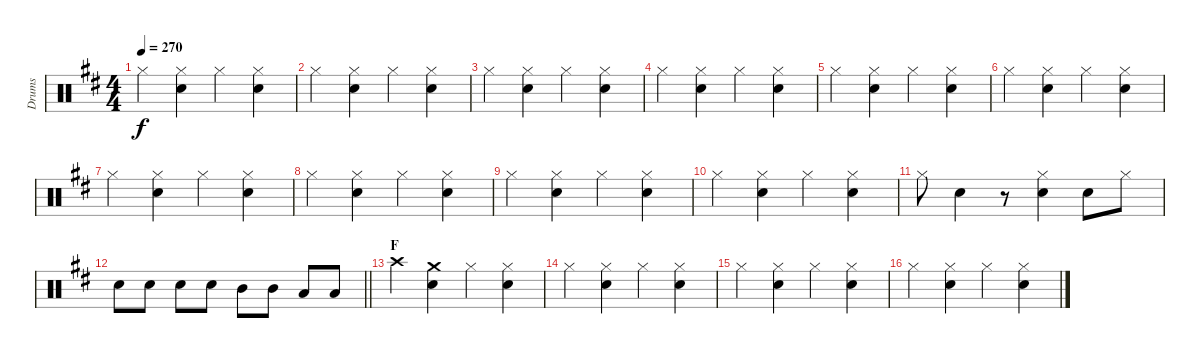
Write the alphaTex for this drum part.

\track ("Drums" "Drums") {instrument percussion}
\staff {score}
\articulation defaults
\ts (4 4)
\tempo 270
\clef neutral
\ks d "Hi-Hat (closed)".4{dy f}
("Hi-Hat (closed)" "Snare (hit) 2").4 "Hi-Hat (closed)".4 ("Hi-Hat (closed)" "Snare (hit) 2").4 |
"Hi-Hat (closed)".4 ("Hi-Hat (closed)" "Snare (hit) 2").4 "Hi-Hat (closed)".4 ("Hi-Hat (closed)" "Snare (hit) 2").4 |
"Hi-Hat (closed)".4 ("Hi-Hat (closed)" "Snare (hit) 2").4 "Hi-Hat (closed)".4 ("Hi-Hat (closed)" "Snare (hit) 2").4 |
"Hi-Hat (closed)".4 ("Hi-Hat (closed)" "Snare (hit) 2").4 "Hi-Hat (closed)".4 ("Hi-Hat (closed)" "Snare (hit) 2").4 |
"Hi-Hat (closed)".4 ("Hi-Hat (closed)" "Snare (hit) 2").4 "Hi-Hat (closed)".4 ("Hi-Hat (closed)" "Snare (hit) 2").4 |
"Hi-Hat (closed)".4 ("Hi-Hat (closed)" "Snare (hit) 2").4 "Hi-Hat (closed)".4 ("Hi-Hat (closed)" "Snare (hit) 2").4 |
"Hi-Hat (closed)".4 ("Hi-Hat (closed)" "Snare (hit) 2").4 "Hi-Hat (closed)".4 ("Hi-Hat (closed)" "Snare (hit) 2").4 |
"Hi-Hat (closed)".4 ("Hi-Hat (closed)" "Snare (hit) 2").4 "Hi-Hat (closed)".4 ("Hi-Hat (closed)" "Snare (hit) 2").4 |
"Hi-Hat (closed)".4 ("Hi-Hat (closed)" "Snare (hit) 2").4 "Hi-Hat (closed)".4 ("Hi-Hat (closed)" "Snare (hit) 2").4 |
"Hi-Hat (closed)".4 ("Hi-Hat (closed)" "Snare (hit) 2").4 "Hi-Hat (closed)".4 ("Hi-Hat (closed)" "Snare (hit) 2").4 |
"Hi-Hat (closed)".8 "Snare (hit) 2".4 r.8 ("Hi-Hat (closed)" "Snare (hit) 2").4 "Snare (hit) 2".8 "Hi-Hat (closed)".8 |
\barLineRight lightlight "Snare (hit) 2".8 "Snare (hit) 2".8 "Snare (hit) 2".8 "Snare (hit) 2".8 "Mid Tom (hit)".8 "Mid Tom (hit)".8 "Low Tom (hit)".8 "Low Tom (hit)".8
|
\section ("" "F")
"Crash high (hit)".4 ("Crash medium (hit)" "Snare (hit) 2").4 "Hi-Hat (closed)".4 ("Hi-Hat (closed)" "Snare (hit) 2").4 |
"Hi-Hat (closed)".4 ("Hi-Hat (closed)" "Snare (hit) 2").4 "Hi-Hat (closed)".4 ("Hi-Hat (closed)" "Snare (hit) 2").4 |
"Hi-Hat (closed)".4 ("Hi-Hat (closed)" "Snare (hit) 2").4 "Hi-Hat (closed)".4 ("Hi-Hat (closed)" "Snare (hit) 2").4 |
"Hi-Hat (closed)".4 ("Hi-Hat (closed)" "Snare (hit) 2").4 "Hi-Hat (closed)".4 ("Hi-Hat (closed)" "Snare (hit) 2").4
